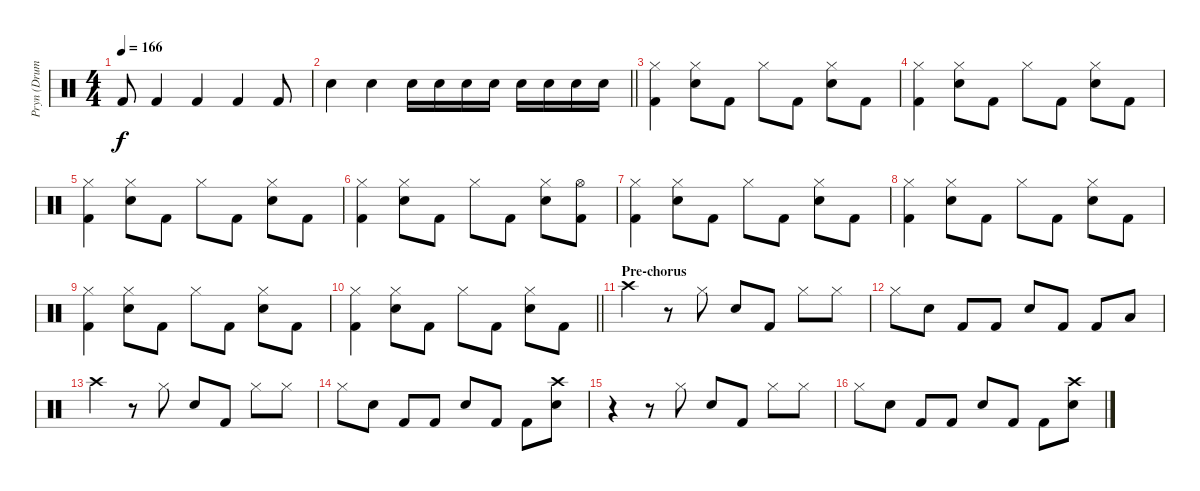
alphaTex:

\track ("Pryn (Drums)" "Pryn (Drum") {instrument percussion}
\staff {score}
\articulation defaults
\ts (4 4)
\tempo 166
\clef neutral
\ks c "Kick (hit) 2".8{dy f} "Kick (hit) 2".4 "Kick (hit) 2".4 "Kick (hit) 2".4 "Kick (hit) 2".8
|
\barLineRight lightlight "Snare (hit) 2".4{volume 14} "Snare (hit) 2".4 "Snare (hit) 2".16 "Snare (hit) 2".16 "Snare (hit) 2".16 "Snare (hit) 2".16 "Snare (hit) 2".16 "Snare (hit) 2".16 "Snare (hit) 2".16 "Snare (hit) 2".16
|
("Hi-Hat (closed)" "Kick (hit) 2").4 ("Hi-Hat (closed)" "Snare (hit) 2").8 "Kick (hit) 2".8 "Hi-Hat (closed)".8 "Kick (hit) 2".8 ("Hi-Hat (closed)" "Snare (hit) 2").8 "Kick (hit) 2".8 |
("Hi-Hat (closed)" "Kick (hit) 2").4 ("Hi-Hat (closed)" "Snare (hit) 2").8 "Kick (hit) 2".8 "Hi-Hat (closed)".8 "Kick (hit) 2".8 ("Hi-Hat (closed)" "Snare (hit) 2").8 "Kick (hit) 2".8 |
("Hi-Hat (closed)" "Kick (hit) 2").4 ("Hi-Hat (closed)" "Snare (hit) 2").8 "Kick (hit) 2".8 "Hi-Hat (closed)".8 "Kick (hit) 2".8 ("Hi-Hat (closed)" "Snare (hit) 2").8 "Kick (hit) 2".8 |
("Hi-Hat (closed)" "Kick (hit) 2").4 ("Hi-Hat (closed)" "Snare (hit) 2").8 "Kick (hit) 2".8 "Hi-Hat (closed)".8 "Kick (hit) 2".8 ("Hi-Hat (closed)" "Snare (hit) 2").8 ("Hi-Hat (open)" "Kick (hit) 2").8 |
("Hi-Hat (closed)" "Kick (hit) 2").4 ("Hi-Hat (closed)" "Snare (hit) 2").8 "Kick (hit) 2".8 "Hi-Hat (closed)".8 "Kick (hit) 2".8 ("Hi-Hat (closed)" "Snare (hit) 2").8 "Kick (hit) 2".8 |
("Hi-Hat (closed)" "Kick (hit) 2").4 ("Hi-Hat (closed)" "Snare (hit) 2").8 "Kick (hit) 2".8 "Hi-Hat (closed)".8 "Kick (hit) 2".8 ("Hi-Hat (closed)" "Snare (hit) 2").8 "Kick (hit) 2".8 |
("Hi-Hat (closed)" "Kick (hit) 2").4 ("Hi-Hat (closed)" "Snare (hit) 2").8 "Kick (hit) 2".8 "Hi-Hat (closed)".8 "Kick (hit) 2".8 ("Hi-Hat (closed)" "Snare (hit) 2").8 "Kick (hit) 2".8 |
\barLineRight lightlight
("Hi-Hat (closed)" "Kick (hit) 2").4 ("Hi-Hat (closed)" "Snare (hit) 2").8 "Kick (hit) 2".8 "Hi-Hat (closed)".8 "Kick (hit) 2".8 ("Hi-Hat (closed)" "Snare (hit) 2").8 "Kick (hit) 2".8 |
\section ("" "Pre-chorus")
"Crash high (hit)".4 r.8 "Hi-Hat (closed)".8 "Snare (hit) 2".8 "Kick (hit) 2".8 "Hi-Hat (closed)".8 "Hi-Hat (closed)".8 |
"Hi-Hat (closed)".8 "Snare (hit) 2".8 "Kick (hit) 2".8 "Kick (hit) 2".8 "Snare (hit) 2".8 "Kick (hit) 2".8 "Kick (hit) 2".8 "Low Floor Tom (hit)".8 |
"Crash high (hit)".4 r.8 "Hi-Hat (closed)".8 "Snare (hit) 2".8 "Kick (hit) 2".8 "Hi-Hat (closed)".8 "Hi-Hat (closed)".8 |
"Hi-Hat (closed)".8 "Snare (hit) 2".8 "Kick (hit) 2".8 "Kick (hit) 2".8 "Snare (hit) 2".8 "Kick (hit) 2".8 "Kick (hit) 2".8 ("Snare (hit) 2" "Crash high (hit)").8 |
r.4 r.8 "Hi-Hat (closed)".8 "Snare (hit) 2".8 "Kick (hit) 2".8 "Hi-Hat (closed)".8 "Hi-Hat (closed)".8 |
"Hi-Hat (closed)".8 "Snare (hit) 2".8 "Kick (hit) 2".8 "Kick (hit) 2".8 "Snare (hit) 2".8 "Kick (hit) 2".8 "Kick (hit) 2".8 ("Snare (hit) 2" "Crash high (hit)").8
